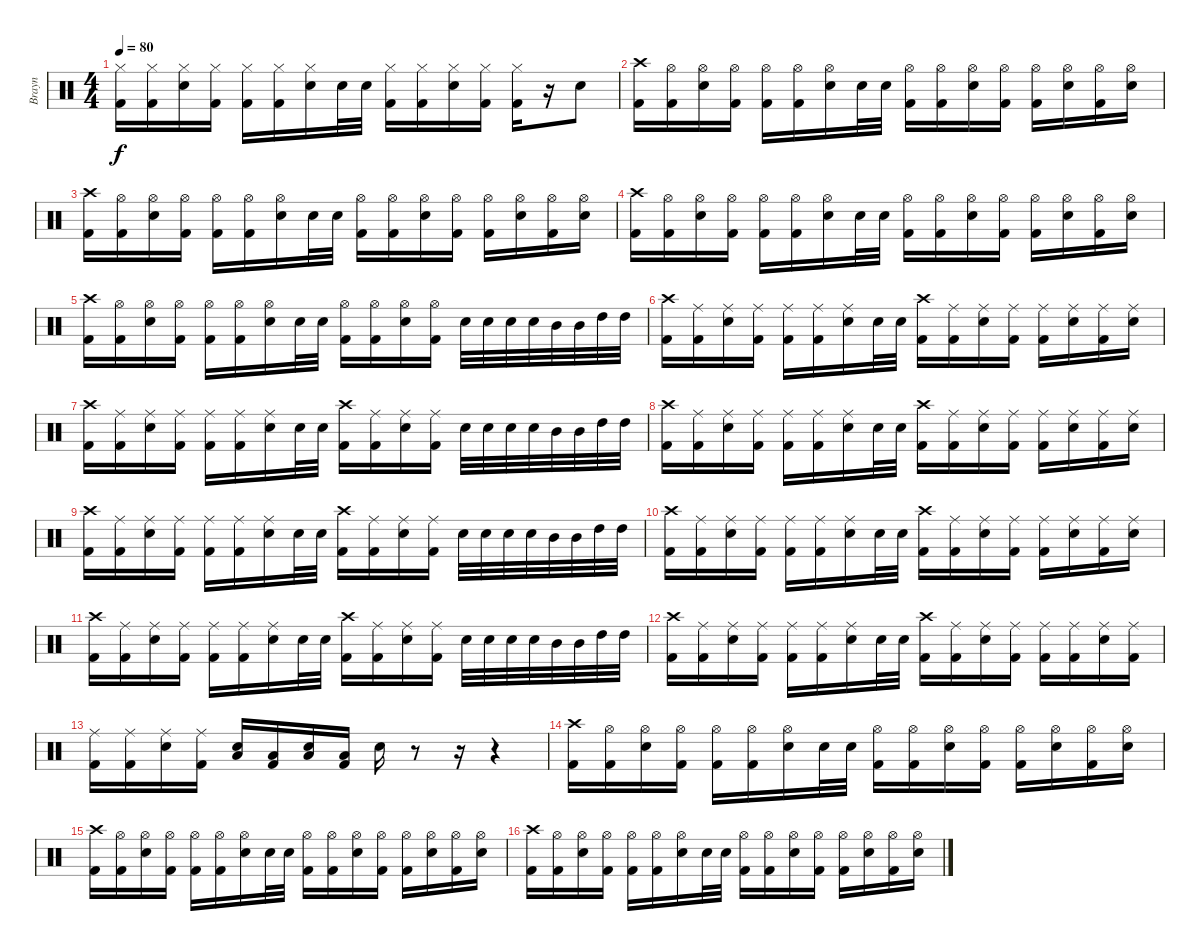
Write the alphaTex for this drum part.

\track ("Brayn" "Brayn") {instrument percussion}
\staff {score}
\articulation defaults
\ts (4 4)
\tempo 80
\clef neutral
\ks c
("Hi-Hat (closed)" "Kick (hit) 2").16{dy f} ("Hi-Hat (closed)" "Kick (hit) 2").16 ("Hi-Hat (closed)" "Snare (hit) 2").16 ("Hi-Hat (closed)" "Kick (hit) 2").16 ("Hi-Hat (closed)" "Kick (hit) 2").16 ("Hi-Hat (closed)" "Kick (hit) 2").16 ("Hi-Hat (closed)" "Snare (hit) 2").16 "Snare (hit) 2".32 "Snare (hit) 2".32 ("Hi-Hat (closed)" "Kick (hit) 2").16 ("Hi-Hat (closed)" "Kick (hit) 2").16 ("Hi-Hat (closed)" "Snare (hit) 2").16 ("Hi-Hat (closed)" "Kick (hit) 2").16 ("Hi-Hat (closed)" "Kick (hit) 2").16 r.16 "Snare (hit) 2".8 |
("Crash high (hit)" "Kick (hit) 2").16 ("Hi-Hat (open)" "Kick (hit) 2").16 ("Hi-Hat (open)" "Snare (hit) 2").16 ("Hi-Hat (open)" "Kick (hit) 2").16 ("Hi-Hat (open)" "Kick (hit) 2").16 ("Hi-Hat (open)" "Kick (hit) 2").16 ("Hi-Hat (open)" "Snare (hit) 2").16 "Snare (hit) 2".32 "Snare (hit) 2".32 ("Hi-Hat (open)" "Kick (hit) 2").16 ("Hi-Hat (open)" "Kick (hit) 2").16 ("Hi-Hat (open)" "Snare (hit) 2").16 ("Hi-Hat (open)" "Kick (hit) 2").16 ("Hi-Hat (open)" "Kick (hit) 2").16 ("Hi-Hat (open)" "Snare (hit) 2").16 ("Hi-Hat (open)" "Kick (hit) 2").16 ("Hi-Hat (open)" "Snare (hit) 2").16 |
("Crash high (hit)" "Kick (hit) 2").16 ("Hi-Hat (open)" "Kick (hit) 2").16 ("Hi-Hat (open)" "Snare (hit) 2").16 ("Hi-Hat (open)" "Kick (hit) 2").16 ("Hi-Hat (open)" "Kick (hit) 2").16 ("Hi-Hat (open)" "Kick (hit) 2").16 ("Hi-Hat (open)" "Snare (hit) 2").16 "Snare (hit) 2".32 "Snare (hit) 2".32 ("Hi-Hat (open)" "Kick (hit) 2").16 ("Hi-Hat (open)" "Kick (hit) 2").16 ("Hi-Hat (open)" "Snare (hit) 2").16 ("Hi-Hat (open)" "Kick (hit) 2").16 ("Hi-Hat (open)" "Kick (hit) 2").16 ("Hi-Hat (open)" "Snare (hit) 2").16 ("Hi-Hat (open)" "Kick (hit) 2").16 ("Hi-Hat (open)" "Snare (hit) 2").16 |
("Crash high (hit)" "Kick (hit) 2").16 ("Hi-Hat (open)" "Kick (hit) 2").16 ("Hi-Hat (open)" "Snare (hit) 2").16 ("Hi-Hat (open)" "Kick (hit) 2").16 ("Hi-Hat (open)" "Kick (hit) 2").16 ("Hi-Hat (open)" "Kick (hit) 2").16 ("Hi-Hat (open)" "Snare (hit) 2").16 "Snare (hit) 2".32 "Snare (hit) 2".32 ("Hi-Hat (open)" "Kick (hit) 2").16 ("Hi-Hat (open)" "Kick (hit) 2").16 ("Hi-Hat (open)" "Snare (hit) 2").16 ("Hi-Hat (open)" "Kick (hit) 2").16 ("Hi-Hat (open)" "Kick (hit) 2").16 ("Hi-Hat (open)" "Snare (hit) 2").16 ("Hi-Hat (open)" "Kick (hit) 2").16 ("Hi-Hat (open)" "Snare (hit) 2").16 |
("Crash high (hit)" "Kick (hit) 2").16 ("Hi-Hat (open)" "Kick (hit) 2").16 ("Hi-Hat (open)" "Snare (hit) 2").16 ("Hi-Hat (open)" "Kick (hit) 2").16 ("Hi-Hat (open)" "Kick (hit) 2").16 ("Hi-Hat (open)" "Kick (hit) 2").16 ("Hi-Hat (open)" "Snare (hit) 2").16 "Snare (hit) 2".32 "Snare (hit) 2".32 ("Hi-Hat (open)" "Kick (hit) 2").16 ("Hi-Hat (open)" "Kick (hit) 2").16 ("Hi-Hat (open)" "Snare (hit) 2").16 ("Hi-Hat (open)" "Kick (hit) 2").16 "Snare (hit) 2".32 "Snare (hit) 2".32 "Snare (hit) 2".32 "Snare (hit) 2".32 "Mid Tom (hit)".32 "Mid Tom (hit)".32 "High Tom (hit)".32 "High Tom (hit)".32 |
("Crash high (hit)" "Kick (hit) 2").16 ("Ride (middle)" "Kick (hit) 2").16 ("Ride (middle)" "Snare (hit) 2").16 ("Ride (middle)" "Kick (hit) 2").16 ("Ride (middle)" "Kick (hit) 2").16 ("Ride (middle)" "Kick (hit) 2").16 ("Ride (middle)" "Snare (hit) 2").16 "Snare (hit) 2".32 "Snare (hit) 2".32 ("Crash high (hit)" "Kick (hit) 2").16 ("Ride (middle)" "Kick (hit) 2").16 ("Ride (middle)" "Snare (hit) 2").16 ("Ride (middle)" "Kick (hit) 2").16 ("Ride (middle)" "Kick (hit) 2").16 ("Ride (middle)" "Snare (hit) 2").16 ("Ride (middle)" "Kick (hit) 2").16 ("Ride (middle)" "Snare (hit) 2").16 |
("Crash high (hit)" "Kick (hit) 2").16 ("Ride (middle)" "Kick (hit) 2").16 ("Ride (middle)" "Snare (hit) 2").16 ("Ride (middle)" "Kick (hit) 2").16 ("Ride (middle)" "Kick (hit) 2").16 ("Ride (middle)" "Kick (hit) 2").16 ("Ride (middle)" "Snare (hit) 2").16 "Snare (hit) 2".32 "Snare (hit) 2".32 ("Crash high (hit)" "Kick (hit) 2").16 ("Ride (middle)" "Kick (hit) 2").16 ("Ride (middle)" "Snare (hit) 2").16 ("Ride (middle)" "Kick (hit) 2").16 "Snare (hit) 2".32 "Snare (hit) 2".32 "Snare (hit) 2".32 "Snare (hit) 2".32 "Mid Tom (hit)".32 "Mid Tom (hit)".32 "High Tom (hit)".32 "High Tom (hit)".32 |
("Crash high (hit)" "Kick (hit) 2").16 ("Ride (middle)" "Kick (hit) 2").16 ("Ride (middle)" "Snare (hit) 2").16 ("Ride (middle)" "Kick (hit) 2").16 ("Ride (middle)" "Kick (hit) 2").16 ("Ride (middle)" "Kick (hit) 2").16 ("Ride (middle)" "Snare (hit) 2").16 "Snare (hit) 2".32 "Snare (hit) 2".32 ("Crash high (hit)" "Kick (hit) 2").16 ("Ride (middle)" "Kick (hit) 2").16 ("Ride (middle)" "Snare (hit) 2").16 ("Ride (middle)" "Kick (hit) 2").16 ("Ride (middle)" "Kick (hit) 2").16 ("Ride (middle)" "Snare (hit) 2").16 ("Ride (middle)" "Kick (hit) 2").16 ("Ride (middle)" "Snare (hit) 2").16 |
("Crash high (hit)" "Kick (hit) 2").16 ("Ride (middle)" "Kick (hit) 2").16 ("Ride (middle)" "Snare (hit) 2").16 ("Ride (middle)" "Kick (hit) 2").16 ("Ride (middle)" "Kick (hit) 2").16 ("Ride (middle)" "Kick (hit) 2").16 ("Ride (middle)" "Snare (hit) 2").16 "Snare (hit) 2".32 "Snare (hit) 2".32 ("Crash high (hit)" "Kick (hit) 2").16 ("Ride (middle)" "Kick (hit) 2").16 ("Ride (middle)" "Snare (hit) 2").16 ("Ride (middle)" "Kick (hit) 2").16 "Snare (hit) 2".32 "Snare (hit) 2".32 "Snare (hit) 2".32 "Snare (hit) 2".32 "Mid Tom (hit)".32 "Mid Tom (hit)".32 "High Tom (hit)".32 "High Tom (hit)".32 |
("Crash high (hit)" "Kick (hit) 2").16 ("Ride (middle)" "Kick (hit) 2").16 ("Ride (middle)" "Snare (hit) 2").16 ("Ride (middle)" "Kick (hit) 2").16 ("Ride (middle)" "Kick (hit) 2").16 ("Ride (middle)" "Kick (hit) 2").16 ("Ride (middle)" "Snare (hit) 2").16 "Snare (hit) 2".32 "Snare (hit) 2".32 ("Crash high (hit)" "Kick (hit) 2").16 ("Ride (middle)" "Kick (hit) 2").16 ("Ride (middle)" "Snare (hit) 2").16 ("Ride (middle)" "Kick (hit) 2").16 ("Ride (middle)" "Kick (hit) 2").16 ("Ride (middle)" "Snare (hit) 2").16 ("Ride (middle)" "Kick (hit) 2").16 ("Ride (middle)" "Snare (hit) 2").16 |
("Crash high (hit)" "Kick (hit) 2").16 ("Ride (middle)" "Kick (hit) 2").16 ("Ride (middle)" "Snare (hit) 2").16 ("Ride (middle)" "Kick (hit) 2").16 ("Ride (middle)" "Kick (hit) 2").16 ("Ride (middle)" "Kick (hit) 2").16 ("Ride (middle)" "Snare (hit) 2").16 "Snare (hit) 2".32 "Snare (hit) 2".32 ("Crash high (hit)" "Kick (hit) 2").16 ("Ride (middle)" "Kick (hit) 2").16 ("Ride (middle)" "Snare (hit) 2").16 ("Ride (middle)" "Kick (hit) 2").16 "Snare (hit) 2".32 "Snare (hit) 2".32 "Snare (hit) 2".32 "Snare (hit) 2".32 "Mid Tom (hit)".32 "Mid Tom (hit)".32 "High Tom (hit)".32 "High Tom (hit)".32 |
("Crash high (hit)" "Kick (hit) 2").16 ("Ride (middle)" "Kick (hit) 2").16 ("Ride (middle)" "Snare (hit) 2").16 ("Ride (middle)" "Kick (hit) 2").16 ("Ride (middle)" "Kick (hit) 2").16 ("Ride (middle)" "Kick (hit) 2").16 ("Ride (middle)" "Snare (hit) 2").16 "Snare (hit) 2".32 "Snare (hit) 2".32 ("Crash high (hit)" "Kick (hit) 2").16 ("Ride (middle)" "Kick (hit) 2").16 ("Ride (middle)" "Snare (hit) 2").16 ("Ride (middle)" "Kick (hit) 2").16 ("Ride (middle)" "Kick (hit) 2").16 ("Ride (middle)" "Kick (hit) 2").16 ("Ride (middle)" "Snare (hit) 2").16 ("Ride (middle)" "Kick (hit) 2").16 |
("Ride (middle)" "Kick (hit) 2").16 ("Ride (middle)" "Kick (hit) 2").16 ("Ride (middle)" "Snare (hit) 2").16 ("Ride (middle)" "Kick (hit) 2").16 ("Low Tom (hit)" "Snare (hit) 2").16 ("Low Tom (hit)" "Kick (hit) 2").16 ("Low Tom (hit)" "Snare (hit) 2").16 ("Low Tom (hit)" "Kick (hit) 2").16 "Snare (hit) 2".16 r.8 r.16 r.4 |
("Crash high (hit)" "Kick (hit) 2").16 ("Hi-Hat (open)" "Kick (hit) 2").16 ("Hi-Hat (open)" "Snare (hit) 2").16 ("Hi-Hat (open)" "Kick (hit) 2").16 ("Hi-Hat (open)" "Kick (hit) 2").16 ("Hi-Hat (open)" "Kick (hit) 2").16 ("Hi-Hat (open)" "Snare (hit) 2").16 "Snare (hit) 2".32 "Snare (hit) 2".32 ("Hi-Hat (open)" "Kick (hit) 2").16 ("Hi-Hat (open)" "Kick (hit) 2").16 ("Hi-Hat (open)" "Snare (hit) 2").16 ("Hi-Hat (open)" "Kick (hit) 2").16 ("Hi-Hat (open)" "Kick (hit) 2").16 ("Hi-Hat (open)" "Snare (hit) 2").16 ("Hi-Hat (open)" "Kick (hit) 2").16 ("Hi-Hat (open)" "Snare (hit) 2").16 |
("Crash high (hit)" "Kick (hit) 2").16 ("Hi-Hat (open)" "Kick (hit) 2").16 ("Hi-Hat (open)" "Snare (hit) 2").16 ("Hi-Hat (open)" "Kick (hit) 2").16 ("Hi-Hat (open)" "Kick (hit) 2").16 ("Hi-Hat (open)" "Kick (hit) 2").16 ("Hi-Hat (open)" "Snare (hit) 2").16 "Snare (hit) 2".32 "Snare (hit) 2".32 ("Hi-Hat (open)" "Kick (hit) 2").16 ("Hi-Hat (open)" "Kick (hit) 2").16 ("Hi-Hat (open)" "Snare (hit) 2").16 ("Hi-Hat (open)" "Kick (hit) 2").16 ("Hi-Hat (open)" "Kick (hit) 2").16 ("Hi-Hat (open)" "Snare (hit) 2").16 ("Hi-Hat (open)" "Kick (hit) 2").16 ("Hi-Hat (open)" "Snare (hit) 2").16 |
("Crash high (hit)" "Kick (hit) 2").16 ("Hi-Hat (open)" "Kick (hit) 2").16 ("Hi-Hat (open)" "Snare (hit) 2").16 ("Hi-Hat (open)" "Kick (hit) 2").16 ("Hi-Hat (open)" "Kick (hit) 2").16 ("Hi-Hat (open)" "Kick (hit) 2").16 ("Hi-Hat (open)" "Snare (hit) 2").16 "Snare (hit) 2".32 "Snare (hit) 2".32 ("Hi-Hat (open)" "Kick (hit) 2").16 ("Hi-Hat (open)" "Kick (hit) 2").16 ("Hi-Hat (open)" "Snare (hit) 2").16 ("Hi-Hat (open)" "Kick (hit) 2").16 ("Hi-Hat (open)" "Kick (hit) 2").16 ("Hi-Hat (open)" "Snare (hit) 2").16 ("Hi-Hat (open)" "Kick (hit) 2").16 ("Hi-Hat (open)" "Snare (hit) 2").16
